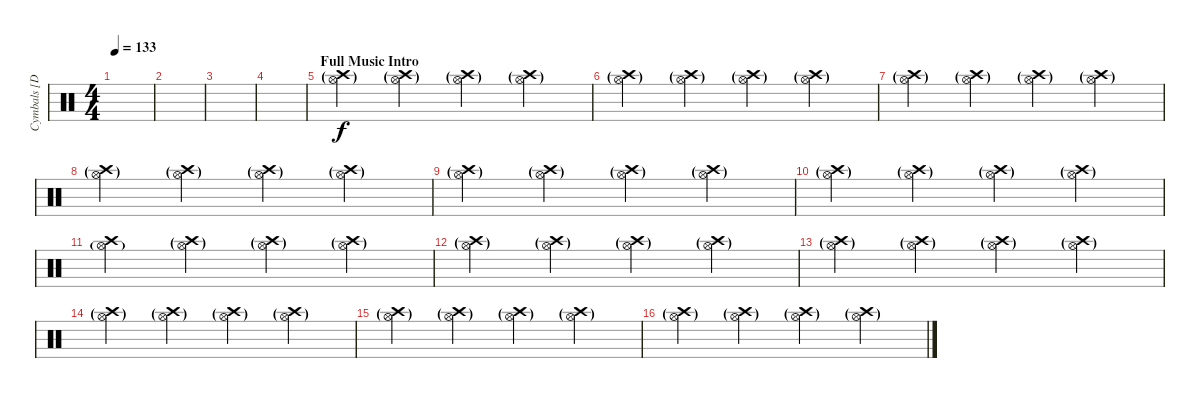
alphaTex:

\track ("Cymbals [Dave Grohl]" "Cymbals [D") {instrument percussion}
\staff {score}
\articulation defaults
\ts (4 4)
\tempo 133
\clef neutral
\ks c
|
|
|
|
\section ("" "Full Music Intro")
("Hi-Hat (open)"{g} "Crash high (hit)"{g}).4{volume 6} ("Hi-Hat (open)"{g} "Crash high (hit)"{g}).4 ("Hi-Hat (open)"{g} "Crash high (hit)"{g}).4 ("Hi-Hat (open)"{g} "Crash high (hit)"{g}).4 |
("Hi-Hat (open)"{g} "Crash high (hit)"{g}).4 ("Hi-Hat (open)"{g} "Crash high (hit)"{g}).4 ("Hi-Hat (open)"{g} "Crash high (hit)"{g}).4 ("Hi-Hat (open)"{g} "Crash high (hit)"{g}).4 |
("Hi-Hat (open)"{g} "Crash high (hit)"{g}).4 ("Hi-Hat (open)"{g} "Crash high (hit)"{g}).4 ("Hi-Hat (open)"{g} "Crash high (hit)"{g}).4 ("Hi-Hat (open)"{g} "Crash high (hit)"{g}).4 |
("Hi-Hat (open)"{g} "Crash high (hit)"{g}).4 ("Hi-Hat (open)"{g} "Crash high (hit)"{g}).4 ("Hi-Hat (open)"{g} "Crash high (hit)"{g}).4 ("Hi-Hat (open)"{g} "Crash high (hit)"{g}).4 |
("Hi-Hat (open)"{g} "Crash high (hit)"{g}).4 ("Hi-Hat (open)"{g} "Crash high (hit)"{g}).4 ("Hi-Hat (open)"{g} "Crash high (hit)"{g}).4 ("Hi-Hat (open)"{g} "Crash high (hit)"{g}).4 |
("Hi-Hat (open)"{g} "Crash high (hit)"{g}).4 ("Hi-Hat (open)"{g} "Crash high (hit)"{g}).4 ("Hi-Hat (open)"{g} "Crash high (hit)"{g}).4 ("Hi-Hat (open)"{g} "Crash high (hit)"{g}).4 |
("Hi-Hat (open)"{g} "Crash high (hit)").4 ("Hi-Hat (open)"{g} "Crash high (hit)"{g}).4 ("Hi-Hat (open)"{g} "Crash high (hit)"{g}).4 ("Hi-Hat (open)"{g} "Crash high (hit)"{g}).4 |
("Hi-Hat (open)"{g} "Crash high (hit)"{g}).4 ("Hi-Hat (open)"{g} "Crash high (hit)"{g}).4 ("Hi-Hat (open)"{g} "Crash high (hit)"{g}).4 ("Hi-Hat (open)"{g} "Crash high (hit)"{g}).4 |
("Hi-Hat (open)"{g} "Crash high (hit)"{g}).4 ("Hi-Hat (open)"{g} "Crash high (hit)"{g}).4 ("Hi-Hat (open)"{g} "Crash high (hit)"{g}).4 ("Hi-Hat (open)"{g} "Crash high (hit)"{g}).4 |
("Hi-Hat (open)"{g} "Crash high (hit)"{g}).4 ("Hi-Hat (open)"{g} "Crash high (hit)"{g}).4 ("Hi-Hat (open)"{g} "Crash high (hit)"{g}).4 ("Hi-Hat (open)"{g} "Crash high (hit)"{g}).4 |
("Hi-Hat (open)"{g} "Crash high (hit)"{g}).4 ("Hi-Hat (open)"{g} "Crash high (hit)"{g}).4 ("Hi-Hat (open)"{g} "Crash high (hit)"{g}).4 ("Hi-Hat (open)"{g} "Crash high (hit)"{g}).4 |
("Hi-Hat (open)"{g} "Crash high (hit)"{g}).4 ("Hi-Hat (open)"{g} "Crash high (hit)"{g}).4 ("Hi-Hat (open)"{g} "Crash high (hit)"{g}).4 ("Hi-Hat (open)"{g} "Crash high (hit)"{g}).4
